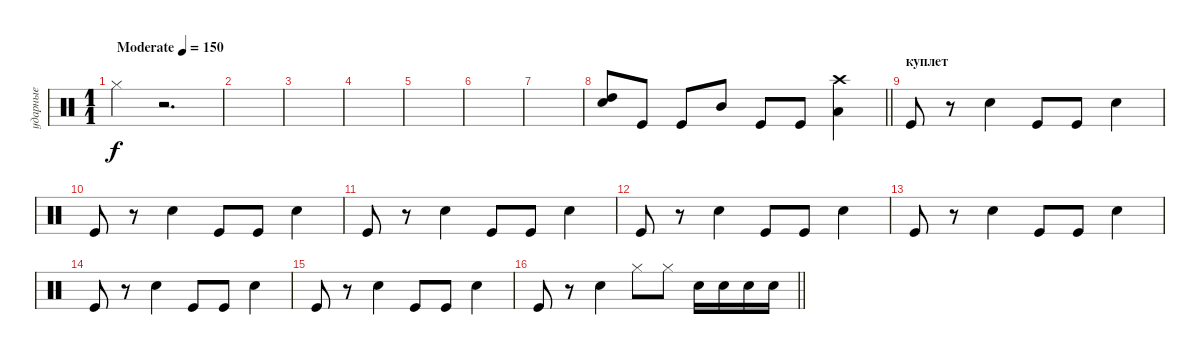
\track ("ударные" "ударные") {instrument percussion}
\staff {score}
\articulation defaults
\ts (1 1)
\tempo (150 "Moderate")
\clef neutral
\ks c "Hi-Hat (closed)".4{dy f}
r.2{d} |
|
|
|
|
|
|
\barLineRight lightlight
("High Tom (hit)" "Snare (hit) 2").8 "Kick (hit)".8 "Kick (hit)".8 "Mid Tom (hit)".8 "Kick (hit)".8 "Kick (hit)".8 ("Crash high (hit)" "Low Tom (hit)").4 |
\section ("" "куплет")
"Kick (hit)".8 r.8 "Snare (hit) 2".4 "Kick (hit)".8 "Kick (hit)".8 "Snare (hit) 2".4 |
"Kick (hit)".8 r.8 "Snare (hit) 2".4 "Kick (hit)".8 "Kick (hit)".8 "Snare (hit) 2".4 |
"Kick (hit)".8 r.8 "Snare (hit) 2".4 "Kick (hit)".8 "Kick (hit)".8 "Snare (hit) 2".4 |
"Kick (hit)".8 r.8 "Snare (hit) 2".4 "Kick (hit)".8 "Kick (hit)".8 "Snare (hit) 2".4 |
"Kick (hit)".8 r.8 "Snare (hit) 2".4 "Kick (hit)".8 "Kick (hit)".8 "Snare (hit) 2".4 |
"Kick (hit)".8 r.8 "Snare (hit) 2".4 "Kick (hit)".8 "Kick (hit)".8 "Snare (hit) 2".4 |
"Kick (hit)".8 r.8 "Snare (hit) 2".4 "Kick (hit)".8 "Kick (hit)".8 "Snare (hit) 2".4 |
\barLineRight lightlight "Kick (hit)".8
r.8 "Snare (hit) 2".4 "Hi-Hat (closed)".8 "Hi-Hat (closed)".8 "Snare (hit) 2".16 "Snare (hit) 2".16 "Snare (hit) 2".16 "Snare (hit) 2".16
